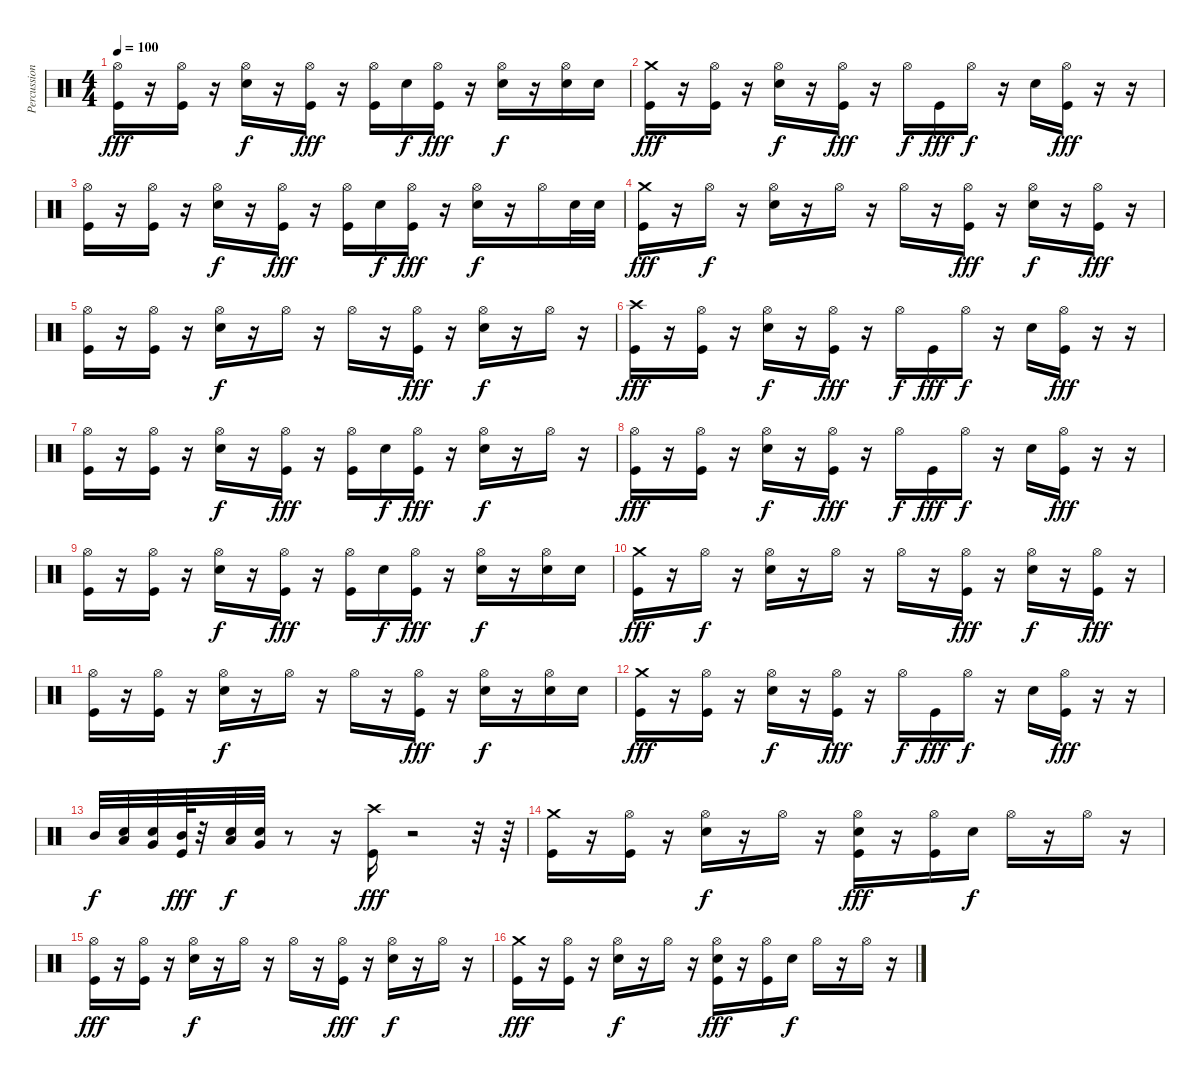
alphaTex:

\track ("Percussion" "Percussion") {instrument percussion}
\staff {score}
\articulation defaults
\ts (4 4)
\tempo 100
\clef neutral
\ks c
("Hi-Hat (open)" "Kick (hit)").16{dy fff} r.16 ("Hi-Hat (open)" "Kick (hit)").16 r.16 ("Hi-Hat (open)" "Electric Snare (hit)").16{dy f} r.16 ("Hi-Hat (open)" "Kick (hit)").16{dy fff} r.16 ("Hi-Hat (open)" "Kick (hit)").16 "Electric Snare (hit)".16{dy f} ("Hi-Hat (open)" "Kick (hit)").16{dy fff} r.16 ("Hi-Hat (open)" "Electric Snare (hit)").16{dy f} r.16 ("Hi-Hat (open)" "Electric Snare (hit)").16 "Electric Snare (hit)".16 |
("Crash medium (hit)" "Kick (hit)").16{dy fff} r.16 ("Hi-Hat (open)" "Kick (hit)").16 r.16 ("Hi-Hat (open)" "Electric Snare (hit)").16{dy f} r.16 ("Hi-Hat (open)" "Kick (hit)").16{dy fff} r.16 "Hi-Hat (open)".16{dy f} "Kick (hit)".16{dy fff} "Hi-Hat (open)".16{dy f} r.16 "Electric Snare (hit)".16 ("Hi-Hat (open)" "Kick (hit)").16{dy fff} r.16 r.16 |
("Hi-Hat (open)" "Kick (hit)").16 r.16 ("Hi-Hat (open)" "Kick (hit)").16 r.16 ("Hi-Hat (open)" "Electric Snare (hit)").16{dy f} r.16 ("Hi-Hat (open)" "Kick (hit)").16{dy fff} r.16 ("Hi-Hat (open)" "Kick (hit)").16 "Electric Snare (hit)".16{dy f} ("Hi-Hat (open)" "Kick (hit)").16{dy fff} r.16 ("Hi-Hat (open)" "Electric Snare (hit)").16{dy f} r.16 "Hi-Hat (open)".16 "Electric Snare (hit)".32 "Electric Snare (hit)".32 |
("Crash medium (hit)" "Kick (hit)").16{dy fff} r.16 "Hi-Hat (open)".16{dy f} r.16 ("Hi-Hat (open)" "Electric Snare (hit)").16 r.16 "Hi-Hat (open)".16 r.16 "Hi-Hat (open)".16 r.16 ("Hi-Hat (open)" "Kick (hit)").16{dy fff} r.16 ("Hi-Hat (open)" "Electric Snare (hit)").16{dy f} r.16 ("Hi-Hat (open)" "Kick (hit)").16{dy fff} r.16 |
("Hi-Hat (open)" "Kick (hit)").16 r.16 ("Hi-Hat (open)" "Kick (hit)").16 r.16 ("Hi-Hat (open)" "Electric Snare (hit)").16{dy f} r.16 "Hi-Hat (open)".16 r.16 "Hi-Hat (open)".16 r.16 ("Hi-Hat (open)" "Kick (hit)").16{dy fff} r.16 ("Hi-Hat (open)" "Electric Snare (hit)").16{dy f} r.16 "Hi-Hat (open)".16 r.16 |
("Crash high (hit)" "Kick (hit)").16{dy fff} r.16 ("Hi-Hat (open)" "Kick (hit)").16 r.16 ("Hi-Hat (open)" "Electric Snare (hit)").16{dy f} r.16 ("Hi-Hat (open)" "Kick (hit)").16{dy fff} r.16 "Hi-Hat (open)".16{dy f} "Kick (hit)".16{dy fff} "Hi-Hat (open)".16{dy f} r.16 "Electric Snare (hit)".16 ("Hi-Hat (open)" "Kick (hit)").16{dy fff} r.16 r.16 |
("Hi-Hat (open)" "Kick (hit)").16 r.16 ("Hi-Hat (open)" "Kick (hit)").16 r.16 ("Hi-Hat (open)" "Electric Snare (hit)").16{dy f} r.16 ("Hi-Hat (open)" "Kick (hit)").16{dy fff} r.16 ("Hi-Hat (open)" "Kick (hit)").16 "Electric Snare (hit)".16{dy f} ("Hi-Hat (open)" "Kick (hit)").16{dy fff} r.16 ("Hi-Hat (open)" "Electric Snare (hit)").16{dy f} r.16 "Hi-Hat (open)".16 r.16 |
("Hi-Hat (open)" "Kick (hit)").16{dy fff} r.16 ("Hi-Hat (open)" "Kick (hit)").16 r.16 ("Hi-Hat (open)" "Electric Snare (hit)").16{dy f} r.16 ("Hi-Hat (open)" "Kick (hit)").16{dy fff} r.16 "Hi-Hat (open)".16{dy f} "Kick (hit)".16{dy fff} "Hi-Hat (open)".16{dy f} r.16 "Electric Snare (hit)".16 ("Hi-Hat (open)" "Kick (hit)").16{dy fff} r.16 r.16 |
("Hi-Hat (open)" "Kick (hit)").16 r.16 ("Hi-Hat (open)" "Kick (hit)").16 r.16 ("Hi-Hat (open)" "Electric Snare (hit)").16{dy f} r.16 ("Hi-Hat (open)" "Kick (hit)").16{dy fff} r.16 ("Hi-Hat (open)" "Kick (hit)").16 "Electric Snare (hit)".16{dy f} ("Hi-Hat (open)" "Kick (hit)").16{dy fff} r.16 ("Hi-Hat (open)" "Electric Snare (hit)").16{dy f} r.16 ("Hi-Hat (open)" "Electric Snare (hit)").16 "Electric Snare (hit)".16 |
("Crash medium (hit)" "Kick (hit)").16{dy fff} r.16 "Hi-Hat (open)".16{dy f} r.16 ("Hi-Hat (open)" "Electric Snare (hit)").16 r.16 "Hi-Hat (open)".16 r.16 "Hi-Hat (open)".16 r.16 ("Hi-Hat (open)" "Kick (hit)").16{dy fff} r.16 ("Hi-Hat (open)" "Electric Snare (hit)").16{dy f} r.16 ("Hi-Hat (open)" "Kick (hit)").16{dy fff} r.16 |
("Hi-Hat (open)" "Kick (hit)").16 r.16 ("Hi-Hat (open)" "Kick (hit)").16 r.16 ("Hi-Hat (open)" "Electric Snare (hit)").16{dy f} r.16 "Hi-Hat (open)".16 r.16 "Hi-Hat (open)".16 r.16 ("Hi-Hat (open)" "Kick (hit)").16{dy fff} r.16 ("Hi-Hat (open)" "Electric Snare (hit)").16{dy f} r.16 ("Hi-Hat (open)" "Electric Snare (hit)").16 "Electric Snare (hit)".16 |
("Crash medium (hit)" "Kick (hit)").16{dy fff} r.16 ("Hi-Hat (open)" "Kick (hit)").16 r.16 ("Hi-Hat (open)" "Electric Snare (hit)").16{dy f} r.16 ("Hi-Hat (open)" "Kick (hit)").16{dy fff} r.16 "Hi-Hat (open)".16{dy f} "Kick (hit)".16{dy fff} "Hi-Hat (open)".16{dy f} r.16 "Electric Snare (hit)".16 ("Hi-Hat (open)" "Kick (hit)").16{dy fff} r.16 r.16 |
"Mid Tom (hit)".32{dy f} ("Low Tom (hit)" "Electric Snare (hit)").32 ("Very Low Tom (hit)" "Electric Snare (hit)").32 ("Mid Tom (hit)" "Kick (hit)").64{dy fff} r.32 ("Low Tom (hit)" "Electric Snare (hit)").32{dy f} ("Very Low Tom (hit)" "Electric Snare (hit)").32 r.8 r.16 ("Crash high (hit)" "Kick (hit)").16{dy fff} r.2 r.32 r.64 |
("Crash medium (hit)" "Kick (hit)").16 r.16 ("Hi-Hat (open)" "Kick (hit)").16 r.16 ("Hi-Hat (open)" "Electric Snare (hit)").16{dy f} r.16 "Hi-Hat (open)".16 r.16 ("Hi-Hat (open)" "Electric Snare (hit)" "Kick (hit)").16{dy fff} r.16 ("Hi-Hat (open)" "Kick (hit)").16 "Electric Snare (hit)".16{dy f} "Hi-Hat (open)".16 r.16 "Hi-Hat (open)".16 r.16 |
("Hi-Hat (open)" "Kick (hit)").16{dy fff} r.16 ("Hi-Hat (open)" "Kick (hit)").16 r.16 ("Hi-Hat (open)" "Electric Snare (hit)").16{dy f} r.16 "Hi-Hat (open)".16 r.16 "Hi-Hat (open)".16 r.16 ("Hi-Hat (open)" "Kick (hit)").16{dy fff} r.16 ("Hi-Hat (open)" "Electric Snare (hit)").16{dy f} r.16 "Hi-Hat (open)".16 r.16 |
("Crash medium (hit)" "Kick (hit)").16{dy fff} r.16 ("Hi-Hat (open)" "Kick (hit)").16 r.16 ("Hi-Hat (open)" "Electric Snare (hit)").16{dy f} r.16 "Hi-Hat (open)".16 r.16 ("Hi-Hat (open)" "Electric Snare (hit)" "Kick (hit)").16{dy fff} r.16 ("Hi-Hat (open)" "Kick (hit)").16 "Electric Snare (hit)".16{dy f} "Hi-Hat (open)".16 r.16 "Hi-Hat (open)".16 r.16
